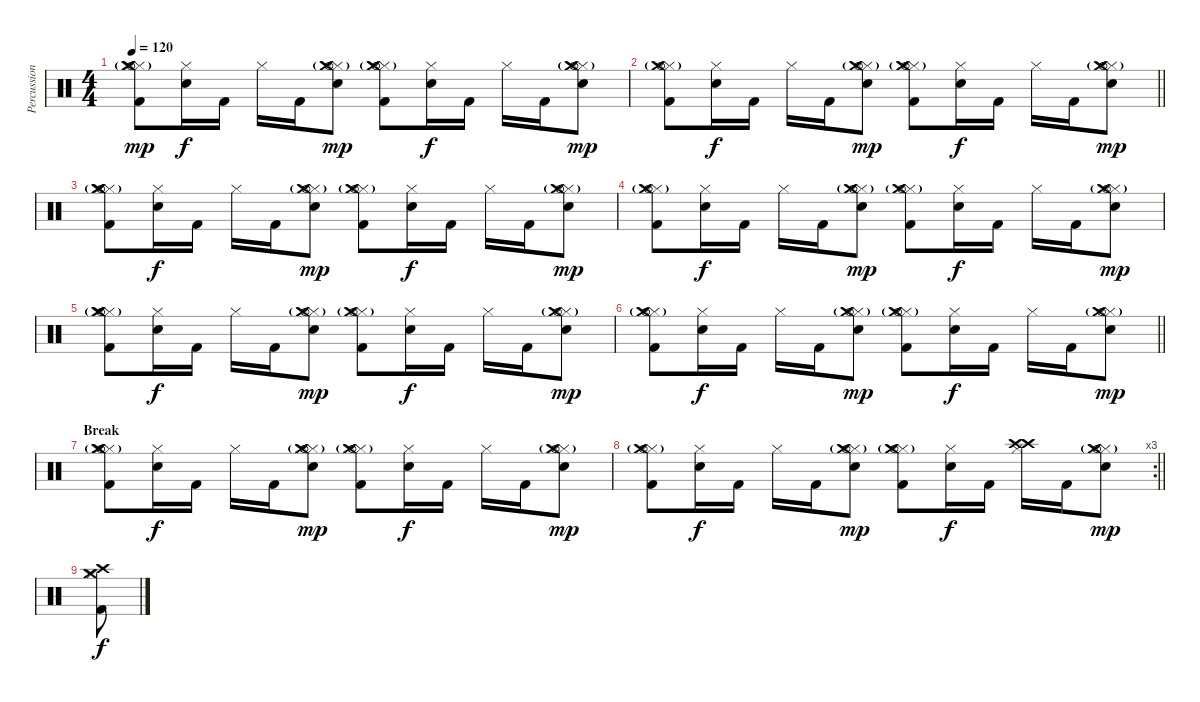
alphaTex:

\track ("Percussion" "Percussion") {instrument percussion}
\staff {score}
\articulation defaults
\ts (4 4)
\tempo 120
\clef neutral
\ks c
("Hi-Hat (closed)" "Hi-Hat (open)"{g} "Crash medium (hit)"{g} "Kick (hit) 2" "Crash medium (hit)").8{dy mp} ("Hi-Hat (closed)" "Snare (hit) 2").16{dy f} "Kick (hit) 2".16 "Hi-Hat (closed)".16 "Kick (hit) 2".16 ("Hi-Hat (closed)" "Hi-Hat (open)"{g} "Crash medium (hit)"{g} "Snare (hit) 2").8{dy mp} ("Hi-Hat (closed)" "Hi-Hat (open)"{g} "Crash medium (hit)"{g} "Kick (hit) 2").8 ("Hi-Hat (closed)" "Snare (hit) 2").16{dy f} "Kick (hit) 2".16 "Hi-Hat (closed)".16 "Kick (hit) 2".16 ("Hi-Hat (closed)" "Hi-Hat (open)"{g} "Crash medium (hit)"{g} "Snare (hit) 2").8{dy mp} |
\barLineRight lightlight
("Hi-Hat (closed)" "Hi-Hat (open)"{g} "Crash medium (hit)"{g} "Kick (hit) 2").8 ("Hi-Hat (closed)" "Snare (hit) 2").16{dy f} "Kick (hit) 2".16 "Hi-Hat (closed)".16 "Kick (hit) 2".16 ("Hi-Hat (closed)" "Hi-Hat (open)"{g} "Crash medium (hit)"{g} "Snare (hit) 2").8{dy mp} ("Hi-Hat (closed)" "Hi-Hat (open)"{g} "Crash medium (hit)"{g} "Kick (hit) 2").8 ("Hi-Hat (closed)" "Snare (hit) 2").16{dy f} "Kick (hit) 2".16 "Hi-Hat (closed)".16 "Kick (hit) 2".16 ("Hi-Hat (closed)" "Hi-Hat (open)"{g} "Crash medium (hit)"{g} "Snare (hit) 2").8{dy mp} |
("Hi-Hat (closed)" "Hi-Hat (open)"{g} "Crash medium (hit)"{g} "Kick (hit) 2" "Crash medium (hit)").8 ("Hi-Hat (closed)" "Snare (hit) 2").16{dy f} "Kick (hit) 2".16 "Hi-Hat (closed)".16 "Kick (hit) 2".16 ("Hi-Hat (closed)" "Hi-Hat (open)"{g} "Crash medium (hit)"{g} "Snare (hit) 2").8{dy mp} ("Hi-Hat (closed)" "Hi-Hat (open)"{g} "Crash medium (hit)"{g} "Kick (hit) 2").8 ("Hi-Hat (closed)" "Snare (hit) 2").16{dy f} "Kick (hit) 2".16 "Hi-Hat (closed)".16 "Kick (hit) 2".16 ("Hi-Hat (closed)" "Hi-Hat (open)"{g} "Crash medium (hit)"{g} "Snare (hit) 2").8{dy mp} |
("Hi-Hat (closed)" "Hi-Hat (open)"{g} "Crash medium (hit)"{g} "Kick (hit) 2").8 ("Hi-Hat (closed)" "Snare (hit) 2").16{dy f} "Kick (hit) 2".16 "Hi-Hat (closed)".16 "Kick (hit) 2".16 ("Hi-Hat (closed)" "Hi-Hat (open)"{g} "Crash medium (hit)"{g} "Snare (hit) 2").8{dy mp} ("Hi-Hat (closed)" "Hi-Hat (open)"{g} "Crash medium (hit)"{g} "Kick (hit) 2").8 ("Hi-Hat (closed)" "Snare (hit) 2").16{dy f} "Kick (hit) 2".16 "Hi-Hat (closed)".16 "Kick (hit) 2".16 ("Hi-Hat (closed)" "Hi-Hat (open)"{g} "Crash medium (hit)"{g} "Snare (hit) 2").8{dy mp} |
("Hi-Hat (closed)" "Hi-Hat (open)"{g} "Crash medium (hit)"{g} "Kick (hit) 2" "Crash medium (hit)").8 ("Hi-Hat (closed)" "Snare (hit) 2").16{dy f} "Kick (hit) 2".16 "Hi-Hat (closed)".16 "Kick (hit) 2".16 ("Hi-Hat (closed)" "Hi-Hat (open)"{g} "Crash medium (hit)"{g} "Snare (hit) 2").8{dy mp} ("Hi-Hat (closed)" "Hi-Hat (open)"{g} "Crash medium (hit)"{g} "Kick (hit) 2").8 ("Hi-Hat (closed)" "Snare (hit) 2").16{dy f} "Kick (hit) 2".16 "Hi-Hat (closed)".16 "Kick (hit) 2".16 ("Hi-Hat (closed)" "Hi-Hat (open)"{g} "Crash medium (hit)"{g} "Snare (hit) 2").8{dy mp} |
\barLineRight lightlight
("Hi-Hat (closed)" "Hi-Hat (open)"{g} "Crash medium (hit)"{g} "Kick (hit) 2").8 ("Hi-Hat (closed)" "Snare (hit) 2").16{dy f} "Kick (hit) 2".16 "Hi-Hat (closed)".16 "Kick (hit) 2".16 ("Hi-Hat (closed)" "Hi-Hat (open)"{g} "Crash medium (hit)"{g} "Snare (hit) 2").8{dy mp} ("Hi-Hat (closed)" "Hi-Hat (open)"{g} "Crash medium (hit)"{g} "Kick (hit) 2").8 ("Hi-Hat (closed)" "Snare (hit) 2").16{dy f} "Kick (hit) 2".16 "Hi-Hat (closed)".16 "Kick (hit) 2".16 ("Hi-Hat (closed)" "Hi-Hat (open)"{g} "Crash medium (hit)"{g} "Snare (hit) 2").8{dy mp} |
\section ("" "Break")
("Hi-Hat (closed)" "Hi-Hat (open)"{g} "Crash medium (hit)"{g} "Kick (hit) 2" "Crash medium (hit)").8 ("Hi-Hat (closed)" "Snare (hit) 2").16{dy f} "Kick (hit) 2".16 "Hi-Hat (closed)".16 "Kick (hit) 2".16 ("Hi-Hat (closed)" "Hi-Hat (open)"{g} "Crash medium (hit)"{g} "Snare (hit) 2").8{dy mp} ("Hi-Hat (closed)" "Hi-Hat (open)"{g} "Crash medium (hit)"{g} "Kick (hit) 2").8 ("Hi-Hat (closed)" "Snare (hit) 2").16{dy f} "Kick (hit) 2".16 "Hi-Hat (closed)".16 "Kick (hit) 2".16 ("Hi-Hat (closed)" "Hi-Hat (open)"{g} "Crash medium (hit)"{g} "Snare (hit) 2").8{dy mp} |
\rc 3
\barLineRight lightlight
("Hi-Hat (closed)" "Hi-Hat (open)"{g} "Crash medium (hit)"{g} "Kick (hit) 2").8 ("Hi-Hat (closed)" "Snare (hit) 2").16{dy f} "Kick (hit) 2".16 "Hi-Hat (closed)".16 "Kick (hit) 2".16 ("Hi-Hat (closed)" "Hi-Hat (open)"{g} "Crash medium (hit)"{g} "Snare (hit) 2").8{dy mp} ("Hi-Hat (closed)" "Hi-Hat (open)"{g} "Crash medium (hit)"{g} "Kick (hit) 2").8 ("Hi-Hat (closed)" "Snare (hit) 2").16{dy f} "Kick (hit) 2".16 ("Hi-Hat (closed)" "Crash high (hit)" "Crash high (hit)").16 "Kick (hit) 2".16 ("Hi-Hat (closed)" "Hi-Hat (open)"{g} "Crash medium (hit)"{g} "Snare (hit) 2").8{dy mp} |
("Hi-Hat (closed)" "Crash high (hit)" "Crash medium (hit)" "Kick (hit) 2").8{dy f}
